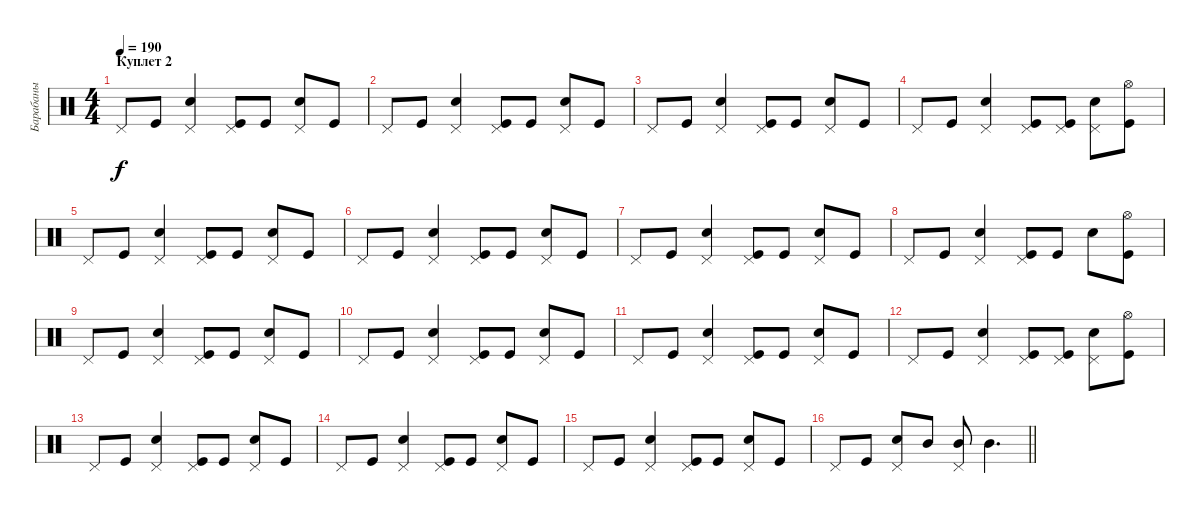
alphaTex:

\track ("Барабаны" "Барабаны") {instrument percussion}
\staff {score}
\articulation defaults
\ts (4 4)
\section ("" "Куплет 2")
\tempo 190
\clef neutral
\ks c "Pedal Hi-Hat (hit)".8{dy f} "Kick (hit)".8
("Snare (hit) 2" "Pedal Hi-Hat (hit)").4 ("Kick (hit)" "Pedal Hi-Hat (hit)").8 "Kick (hit)".8 ("Snare (hit) 2" "Pedal Hi-Hat (hit)").8 "Kick (hit)".8 |
"Pedal Hi-Hat (hit)".8 "Kick (hit)".8 ("Snare (hit) 2" "Pedal Hi-Hat (hit)").4 ("Kick (hit)" "Pedal Hi-Hat (hit)").8 "Kick (hit)".8 ("Snare (hit) 2" "Pedal Hi-Hat (hit)").8 "Kick (hit)".8 |
"Pedal Hi-Hat (hit)".8 "Kick (hit)".8 ("Snare (hit) 2" "Pedal Hi-Hat (hit)").4 ("Kick (hit)" "Pedal Hi-Hat (hit)").8 "Kick (hit)".8 ("Snare (hit) 2" "Pedal Hi-Hat (hit)").8 "Kick (hit)".8 |
"Pedal Hi-Hat (hit)".8 "Kick (hit)".8 ("Snare (hit) 2" "Pedal Hi-Hat (hit)").4 ("Kick (hit)" "Pedal Hi-Hat (hit)").8 ("Kick (hit)" "Pedal Hi-Hat (hit)").8 ("Snare (hit) 2" "Pedal Hi-Hat (hit)").8 ("Kick (hit)" "Hi-Hat (open)").8 |
"Pedal Hi-Hat (hit)".8 "Kick (hit)".8 ("Snare (hit) 2" "Pedal Hi-Hat (hit)").4 ("Kick (hit)" "Pedal Hi-Hat (hit)").8 "Kick (hit)".8 ("Snare (hit) 2" "Pedal Hi-Hat (hit)").8 "Kick (hit)".8 |
"Pedal Hi-Hat (hit)".8 "Kick (hit)".8 ("Snare (hit) 2" "Pedal Hi-Hat (hit)").4 ("Kick (hit)" "Pedal Hi-Hat (hit)").8 "Kick (hit)".8 ("Snare (hit) 2" "Pedal Hi-Hat (hit)").8 "Kick (hit)".8 |
"Pedal Hi-Hat (hit)".8 "Kick (hit)".8 ("Snare (hit) 2" "Pedal Hi-Hat (hit)").4 ("Kick (hit)" "Pedal Hi-Hat (hit)").8 "Kick (hit)".8 ("Snare (hit) 2" "Pedal Hi-Hat (hit)").8 "Kick (hit)".8 |
"Pedal Hi-Hat (hit)".8 "Kick (hit)".8 ("Snare (hit) 2" "Pedal Hi-Hat (hit)").4 ("Kick (hit)" "Pedal Hi-Hat (hit)").8 "Kick (hit)".8 "Snare (hit) 2".8 ("Kick (hit)" "Hi-Hat (open)").8 |
"Pedal Hi-Hat (hit)".8 "Kick (hit)".8 ("Snare (hit) 2" "Pedal Hi-Hat (hit)").4 ("Kick (hit)" "Pedal Hi-Hat (hit)").8 "Kick (hit)".8 ("Snare (hit) 2" "Pedal Hi-Hat (hit)").8 "Kick (hit)".8 |
"Pedal Hi-Hat (hit)".8 "Kick (hit)".8 ("Snare (hit) 2" "Pedal Hi-Hat (hit)").4 ("Kick (hit)" "Pedal Hi-Hat (hit)").8 "Kick (hit)".8 ("Snare (hit) 2" "Pedal Hi-Hat (hit)").8 "Kick (hit)".8 |
"Pedal Hi-Hat (hit)".8 "Kick (hit)".8 ("Snare (hit) 2" "Pedal Hi-Hat (hit)").4 ("Kick (hit)" "Pedal Hi-Hat (hit)").8 "Kick (hit)".8 ("Snare (hit) 2" "Pedal Hi-Hat (hit)").8 "Kick (hit)".8 |
"Pedal Hi-Hat (hit)".8 "Kick (hit)".8 ("Snare (hit) 2" "Pedal Hi-Hat (hit)").4 ("Kick (hit)" "Pedal Hi-Hat (hit)").8 ("Kick (hit)" "Pedal Hi-Hat (hit)").8 ("Snare (hit) 2" "Pedal Hi-Hat (hit)").8 ("Kick (hit)" "Hi-Hat (open)").8 |
"Pedal Hi-Hat (hit)".8 "Kick (hit)".8 ("Snare (hit) 2" "Pedal Hi-Hat (hit)").4 ("Kick (hit)" "Pedal Hi-Hat (hit)").8 "Kick (hit)".8 ("Snare (hit) 2" "Pedal Hi-Hat (hit)").8 "Kick (hit)".8 |
"Pedal Hi-Hat (hit)".8 "Kick (hit)".8 ("Snare (hit) 2" "Pedal Hi-Hat (hit)").4 ("Kick (hit)" "Pedal Hi-Hat (hit)").8 "Kick (hit)".8 ("Snare (hit) 2" "Pedal Hi-Hat (hit)").8 "Kick (hit)".8 |
"Pedal Hi-Hat (hit)".8 "Kick (hit)".8 ("Snare (hit) 2" "Pedal Hi-Hat (hit)").4 ("Kick (hit)" "Pedal Hi-Hat (hit)").8 "Kick (hit)".8 ("Snare (hit) 2" "Pedal Hi-Hat (hit)").8 "Kick (hit)".8 |
\barLineRight lightlight "Pedal Hi-Hat (hit)".8 "Kick (hit)".8
("Snare (hit) 2" "Pedal Hi-Hat (hit)").8 "Mid Tom (hit)".8 ("Mid Tom (hit)" "Pedal Hi-Hat (hit)").8 "Mid Tom (hit)".4{d}
